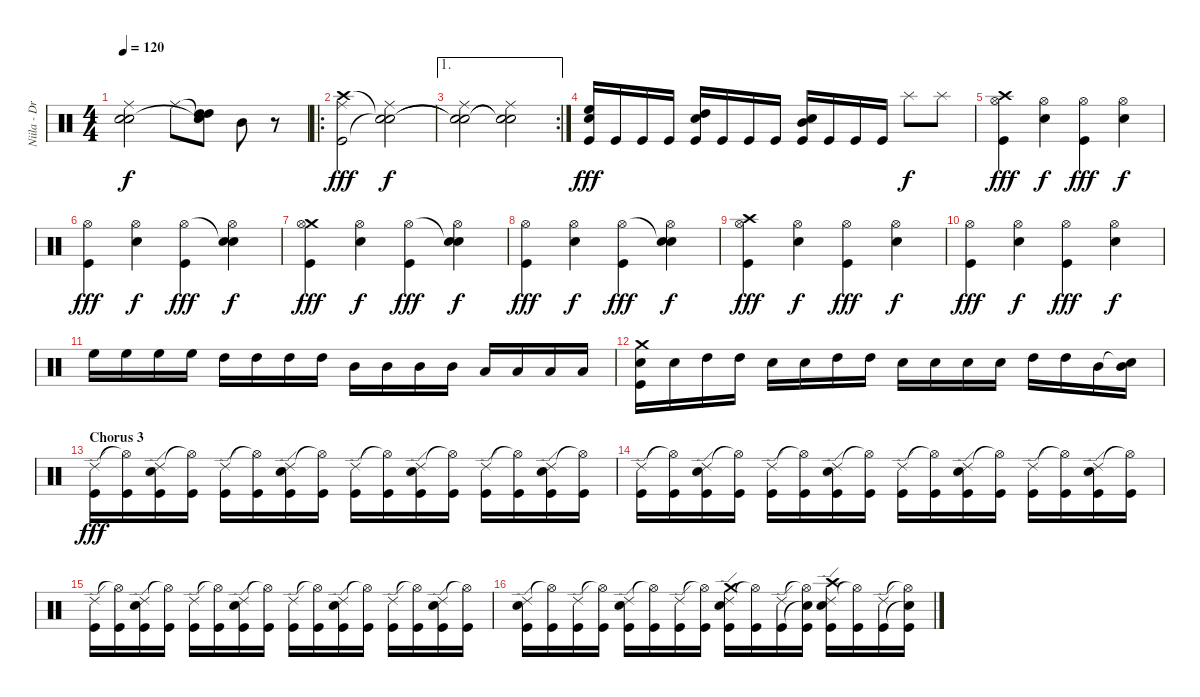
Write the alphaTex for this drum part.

\track ("Niila - Drums" "Niila - Dr") {instrument percussion}
\staff {score}
\articulation defaults
\ts (4 4)
\tempo 120
\clef neutral
\ks c
("Ride (middle)" "Snare (hit)"{t} "Snare (hit)"{t}).2{dy f} "Ride (middle)".8 ("Snare (hit)"{t} "Snare (hit)"{t} "High Tom (hit)" "High Tom (hit)").8{balance 3} "Mid Tom (hit)".8{balance 12} r.8 |
\ro
("Ride (middle)" "Crash high (hit)" "Kick (hit)").2{dy fff balance 9} ("Ride (middle)" "Snare (hit)"{t} "Snare (hit)"{t}).2{dy f} |
\ae 1
\rc 2
("Ride (middle)" "Snare (hit)"{t} "Snare (hit)"{t}).2 ("Ride (middle)" "Snare (hit)"{t} "Snare (hit)"{t}).2 |
("High Floor Tom (hit)" "Snare (hit) 2" "Kick (hit)").16{dy fff balance 7} "Kick (hit)".16 "Kick (hit)".16 "Kick (hit)".16 ("High Tom (hit)" "Snare (hit) 2" "Kick (hit)").16 "Kick (hit)".16 "Kick (hit)".16 "Kick (hit)".16 ("Mid Tom (hit)" "Snare (hit) 2" "Kick (hit)").16 "Kick (hit)".16 "Kick (hit)".16 "Kick (hit)".16 "Splash (hit)".8{dy f} "Splash (hit)".8 |
("Crash high (hit)" "Hi-Hat (open)" "Kick (hit)").4{dy fff} ("Hi-Hat (open)" "Snare (hit) 2").4{dy f} ("Hi-Hat (open)" "Kick (hit)").4{dy fff} ("Hi-Hat (open)" "Snare (hit) 2").4{dy f} |
("Hi-Hat (open)" "Kick (hit)").4{dy fff} ("Hi-Hat (open)" "Snare (hit) 2").4{dy f} ("Hi-Hat (open)" "Kick (hit)").4{dy fff} ("Snare (hit)"{t} "Hi-Hat (open)" "Snare (hit) 2").4{dy f} |
("Crash medium (hit)" "Hi-Hat (open)" "Kick (hit)").4{dy fff} ("Hi-Hat (open)" "Snare (hit) 2").4{dy f} ("Hi-Hat (open)" "Kick (hit)").4{dy fff} ("Snare (hit)"{t} "Hi-Hat (open)" "Snare (hit) 2").4{dy f} |
("Hi-Hat (open)" "Kick (hit)").4{dy fff} ("Hi-Hat (open)" "Snare (hit) 2").4{dy f} ("Hi-Hat (open)" "Kick (hit)").4{dy fff} ("Snare (hit)"{t} "Hi-Hat (open)" "Snare (hit) 2").4{dy f} |
("Crash high (hit)" "Hi-Hat (open)" "Kick (hit)").4{dy fff} ("Hi-Hat (open)" "Snare (hit) 2").4{dy f} ("Hi-Hat (open)" "Kick (hit)").4{dy fff} ("Hi-Hat (open)" "Snare (hit) 2").4{dy f} |
("Hi-Hat (open)" "Kick (hit)").4{dy fff} ("Hi-Hat (open)" "Snare (hit) 2").4{dy f} ("Hi-Hat (open)" "Kick (hit)").4{dy fff} ("Hi-Hat (open)" "Snare (hit) 2").4{dy f} |
"High Floor Tom (hit)".16 "High Floor Tom (hit)".16 "High Floor Tom (hit)".16 "High Floor Tom (hit)".16 "High Tom (hit)".16 "High Tom (hit)".16 "High Tom (hit)".16 "High Tom (hit)".16 "Mid Tom (hit)".16 "Mid Tom (hit)".16 "Mid Tom (hit)".16 "Mid Tom (hit)".16 "Low Tom (hit)".16 "Low Tom (hit)".16 "Low Tom (hit)".16 "Low Tom (hit)".16 |
("Crash medium (hit)" "Snare (hit) 2" "Kick (hit)").16 "Snare (hit) 2".16 "High Tom (hit)".16 "High Tom (hit)".16 "Snare (hit) 2".16 "Snare (hit) 2".16 "High Tom (hit)".16 "High Tom (hit)".16 "Snare (hit) 2".16 "Snare (hit) 2".16 "Snare (hit) 2".16 "Snare (hit) 2".16 "High Tom (hit)".16 "High Tom (hit)".16 "Mid Tom (hit)".16 ("Snare (hit)"{t} "Mid Tom (hit)").16 |
\section ("" "Chorus 3")
("Ride (edge) 2" "Kick (hit)").16{dy fff} ("Hi-Hat (open)"{t} "Kick (hit)").16 ("Ride (edge) 2" "Snare (hit) 2" "Kick (hit)").16 ("Hi-Hat (open)"{t} "Kick (hit)").16 ("Ride (edge) 2" "Kick (hit)").16 ("Hi-Hat (open)"{t} "Kick (hit)").16 ("Ride (edge) 2" "Snare (hit) 2" "Kick (hit)").16 ("Hi-Hat (open)"{t} "Kick (hit)").16 ("Ride (edge) 2" "Kick (hit)").16 ("Hi-Hat (open)"{t} "Kick (hit)").16 ("Ride (edge) 2" "Snare (hit) 2" "Kick (hit)").16 ("Hi-Hat (open)"{t} "Kick (hit)").16 ("Ride (edge) 2" "Kick (hit)").16 ("Hi-Hat (open)"{t} "Kick (hit)").16 ("Ride (edge) 2" "Snare (hit) 2" "Kick (hit)").16 ("Hi-Hat (open)"{t} "Kick (hit)").16 |
("Ride (edge) 2" "Kick (hit)").16 ("Hi-Hat (open)"{t} "Kick (hit)").16 ("Ride (edge) 2" "Snare (hit) 2" "Kick (hit)").16 ("Hi-Hat (open)"{t} "Kick (hit)").16 ("Ride (edge) 2" "Kick (hit)").16 ("Hi-Hat (open)"{t} "Kick (hit)").16 ("Ride (edge) 2" "Snare (hit) 2" "Kick (hit)").16 ("Hi-Hat (open)"{t} "Kick (hit)").16 ("Ride (edge) 2" "Kick (hit)").16 ("Hi-Hat (open)"{t} "Kick (hit)").16 ("Ride (edge) 2" "Snare (hit) 2" "Kick (hit)").16 ("Hi-Hat (open)"{t} "Kick (hit)").16 ("Ride (edge) 2" "Kick (hit)").16 ("Hi-Hat (open)"{t} "Kick (hit)").16 ("Ride (edge) 2" "Snare (hit) 2" "Kick (hit)").16 ("Hi-Hat (open)"{t} "Kick (hit)").16 |
("Ride (edge) 2" "Kick (hit)").16 ("Hi-Hat (open)"{t} "Kick (hit)").16 ("Ride (edge) 2" "Snare (hit) 2" "Kick (hit)").16 ("Hi-Hat (open)"{t} "Kick (hit)").16 ("Ride (edge) 2" "Kick (hit)").16 ("Hi-Hat (open)"{t} "Kick (hit)").16 ("Ride (edge) 2" "Snare (hit) 2" "Kick (hit)").16 ("Hi-Hat (open)"{t} "Kick (hit)").16 ("Ride (edge) 2" "Kick (hit)").16 ("Hi-Hat (open)"{t} "Kick (hit)").16 ("Ride (edge) 2" "Snare (hit) 2" "Kick (hit)").16 ("Hi-Hat (open)"{t} "Kick (hit)").16 ("Ride (edge) 2" "Kick (hit)").16 ("Hi-Hat (open)"{t} "Kick (hit)").16 ("Ride (edge) 2" "Snare (hit) 2" "Kick (hit)").16 ("Hi-Hat (open)"{t} "Kick (hit)").16 |
("Ride (edge) 2" "Snare (hit) 2" "Kick (hit)").16 ("Hi-Hat (open)"{t} "Kick (hit)").16 ("Ride (edge) 2" "Kick (hit)").16 ("Hi-Hat (open)"{t} "Kick (hit)").16 ("Ride (edge) 2" "Snare (hit) 2" "Kick (hit)").16 ("Hi-Hat (open)"{t} "Kick (hit)").16 ("Ride (edge) 2" "Kick (hit)").16 ("Hi-Hat (open)"{t} "Kick (hit)").16 ("Ride (edge) 2" "Crash medium (hit)" "Snare (hit) 2" "Kick (hit)").16 ("Hi-Hat (open)"{t} "Kick (hit)").16 ("Ride (edge) 2" "Kick (hit)").16 ("Hi-Hat (open)"{t} "Snare (hit)"{t} "Kick (hit)").16 ("Ride (edge) 2" "Crash high (hit)" "Snare (hit) 2" "Kick (hit)").16 ("Hi-Hat (open)"{t} "Kick (hit)").16 ("Ride (edge) 2" "Kick (hit)").16 ("Hi-Hat (open)"{t} "Snare (hit)"{t} "Kick (hit)").16
